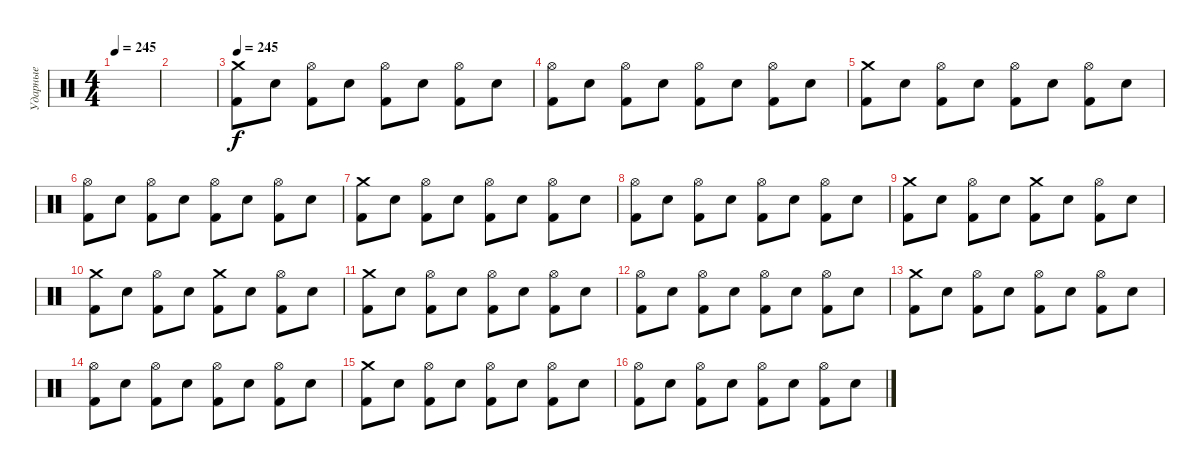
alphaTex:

\track ("Ударные" "Ударные") {instrument percussion}
\staff {score}
\articulation defaults
\ts (4 4)
\tempo 245
\clef neutral
\ks c
|
|
\tempo 245
("Crash medium (hit)" "Kick (hit) 2").8 "Snare (hit) 2".8 ("Hi-Hat (open)" "Kick (hit) 2").8 "Snare (hit) 2".8 ("Hi-Hat (open)" "Kick (hit) 2").8 "Snare (hit) 2".8 ("Hi-Hat (open)" "Kick (hit) 2").8 "Snare (hit) 2".8 |
("Hi-Hat (open)" "Kick (hit) 2").8 "Snare (hit) 2".8 ("Hi-Hat (open)" "Kick (hit) 2").8 "Snare (hit) 2".8 ("Hi-Hat (open)" "Kick (hit) 2").8 "Snare (hit) 2".8 ("Hi-Hat (open)" "Kick (hit) 2").8 "Snare (hit) 2".8 |
("Crash medium (hit)" "Kick (hit) 2").8 "Snare (hit) 2".8 ("Hi-Hat (open)" "Kick (hit) 2").8 "Snare (hit) 2".8 ("Hi-Hat (open)" "Kick (hit) 2").8 "Snare (hit) 2".8 ("Hi-Hat (open)" "Kick (hit) 2").8 "Snare (hit) 2".8 |
("Hi-Hat (open)" "Kick (hit) 2").8 "Snare (hit) 2".8 ("Hi-Hat (open)" "Kick (hit) 2").8 "Snare (hit) 2".8 ("Hi-Hat (open)" "Kick (hit) 2").8 "Snare (hit) 2".8 ("Hi-Hat (open)" "Kick (hit) 2").8 "Snare (hit) 2".8 |
("Crash medium (hit)" "Kick (hit) 2").8 "Snare (hit) 2".8 ("Hi-Hat (open)" "Kick (hit) 2").8 "Snare (hit) 2".8 ("Hi-Hat (open)" "Kick (hit) 2").8 "Snare (hit) 2".8 ("Hi-Hat (open)" "Kick (hit) 2").8 "Snare (hit) 2".8 |
("Hi-Hat (open)" "Kick (hit) 2").8 "Snare (hit) 2".8 ("Hi-Hat (open)" "Kick (hit) 2").8 "Snare (hit) 2".8 ("Hi-Hat (open)" "Kick (hit) 2").8 "Snare (hit) 2".8 ("Hi-Hat (open)" "Kick (hit) 2").8 "Snare (hit) 2".8 |
("Crash medium (hit)" "Kick (hit) 2").8 "Snare (hit) 2".8 ("Hi-Hat (open)" "Kick (hit) 2").8 "Snare (hit) 2".8 ("Crash medium (hit)" "Kick (hit) 2").8 "Snare (hit) 2".8 ("Hi-Hat (open)" "Kick (hit) 2").8 "Snare (hit) 2".8 |
("Crash medium (hit)" "Kick (hit) 2").8 "Snare (hit) 2".8 ("Hi-Hat (open)" "Kick (hit) 2").8 "Snare (hit) 2".8 ("Crash medium (hit)" "Kick (hit) 2").8 "Snare (hit) 2".8 ("Hi-Hat (open)" "Kick (hit) 2").8 "Snare (hit) 2".8 |
("Crash medium (hit)" "Kick (hit) 2").8 "Snare (hit) 2".8 ("Hi-Hat (open)" "Kick (hit) 2").8 "Snare (hit) 2".8 ("Hi-Hat (open)" "Kick (hit) 2").8 "Snare (hit) 2".8 ("Hi-Hat (open)" "Kick (hit) 2").8 "Snare (hit) 2".8 |
("Hi-Hat (open)" "Kick (hit) 2").8 "Snare (hit) 2".8 ("Hi-Hat (open)" "Kick (hit) 2").8 "Snare (hit) 2".8 ("Hi-Hat (open)" "Kick (hit) 2").8 "Snare (hit) 2".8 ("Hi-Hat (open)" "Kick (hit) 2").8 "Snare (hit) 2".8 |
("Crash medium (hit)" "Kick (hit) 2").8 "Snare (hit) 2".8 ("Hi-Hat (open)" "Kick (hit) 2").8 "Snare (hit) 2".8 ("Hi-Hat (open)" "Kick (hit) 2").8 "Snare (hit) 2".8 ("Hi-Hat (open)" "Kick (hit) 2").8 "Snare (hit) 2".8 |
("Hi-Hat (open)" "Kick (hit) 2").8 "Snare (hit) 2".8 ("Hi-Hat (open)" "Kick (hit) 2").8 "Snare (hit) 2".8 ("Hi-Hat (open)" "Kick (hit) 2").8 "Snare (hit) 2".8 ("Hi-Hat (open)" "Kick (hit) 2").8 "Snare (hit) 2".8 |
("Crash medium (hit)" "Kick (hit) 2").8 "Snare (hit) 2".8 ("Hi-Hat (open)" "Kick (hit) 2").8 "Snare (hit) 2".8 ("Hi-Hat (open)" "Kick (hit) 2").8 "Snare (hit) 2".8 ("Hi-Hat (open)" "Kick (hit) 2").8 "Snare (hit) 2".8 |
("Hi-Hat (open)" "Kick (hit) 2").8 "Snare (hit) 2".8 ("Hi-Hat (open)" "Kick (hit) 2").8 "Snare (hit) 2".8 ("Hi-Hat (open)" "Kick (hit) 2").8 "Snare (hit) 2".8 ("Hi-Hat (open)" "Kick (hit) 2").8 "Snare (hit) 2".8
